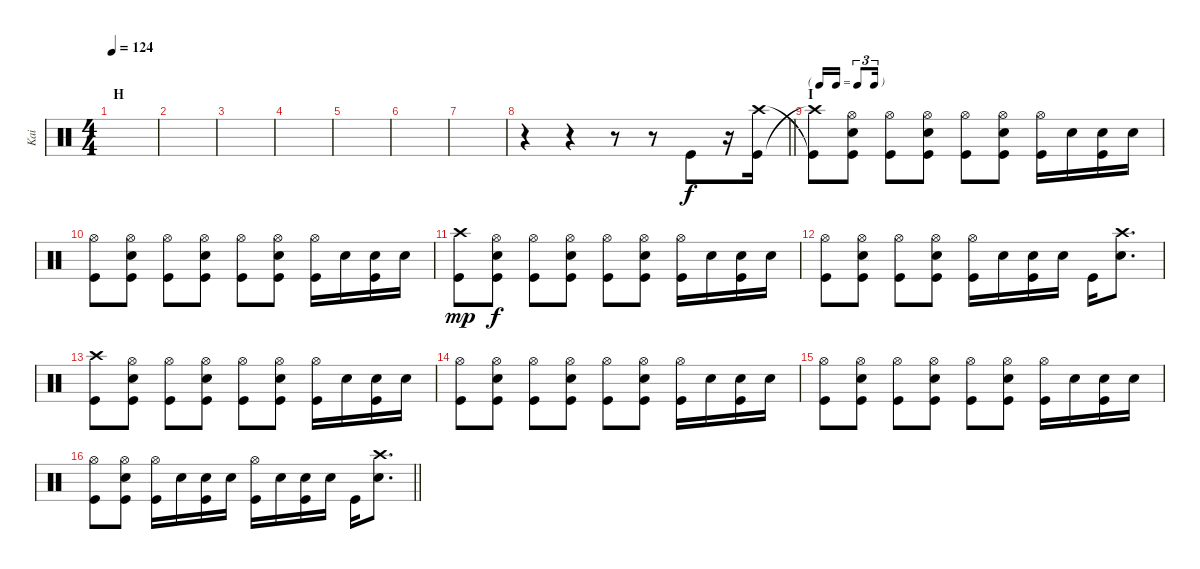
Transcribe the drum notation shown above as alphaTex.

\track ("Kai" "Kai") {instrument percussion}
\staff {score}
\articulation defaults
\ts (4 4)
\section ("" "H")
\tempo 124
\clef neutral
\ks c
|
|
|
|
|
|
|
\barLineRight lightlight
r.4 r.4 r.8 r.8 "Kick (hit)".8 r.16 ("Crash high (hit)" "Kick (hit)").16 |
\tf triplet16th
\section ("" "I")
("Kick (hit)"{t} "Crash high (hit)"{t}).8 ("Hi-Hat (open)" "Snare (hit) 2" "Kick (hit)").8 ("Hi-Hat (open)" "Kick (hit)").8 ("Hi-Hat (open)" "Snare (hit) 2" "Kick (hit)").8 ("Kick (hit)" "Hi-Hat (open)").8 ("Snare (hit) 2" "Hi-Hat (open)" "Kick (hit)").8 ("Kick (hit)" "Hi-Hat (open)").16 "Snare (hit) 2".16 ("Snare (hit) 2" "Kick (hit)").16 "Snare (hit) 2".16 |
("Hi-Hat (open)" "Kick (hit)").8 ("Hi-Hat (open)" "Snare (hit) 2" "Kick (hit)").8 ("Hi-Hat (open)" "Kick (hit)").8 ("Hi-Hat (open)" "Snare (hit) 2" "Kick (hit)").8 ("Kick (hit)" "Hi-Hat (open)").8 ("Snare (hit) 2" "Hi-Hat (open)" "Kick (hit)").8 ("Kick (hit)" "Hi-Hat (open)").16 "Snare (hit) 2".16 ("Snare (hit) 2" "Kick (hit)").16 "Snare (hit) 2".16 |
("Crash high (hit)" "Kick (hit)").8{dy mp} ("Hi-Hat (open)" "Snare (hit) 2" "Kick (hit)").8{dy f} ("Hi-Hat (open)" "Kick (hit)").8 ("Hi-Hat (open)" "Snare (hit) 2" "Kick (hit)").8 ("Kick (hit)" "Hi-Hat (open)").8 ("Snare (hit) 2" "Hi-Hat (open)" "Kick (hit)").8 ("Kick (hit)" "Hi-Hat (open)").16 "Snare (hit) 2".16 ("Snare (hit) 2" "Kick (hit)").16 "Snare (hit) 2".16 |
("Hi-Hat (open)" "Kick (hit)").8 ("Hi-Hat (open)" "Snare (hit) 2" "Kick (hit)").8 ("Hi-Hat (open)" "Kick (hit)").8 ("Hi-Hat (open)" "Snare (hit) 2" "Kick (hit)").8 ("Kick (hit)" "Hi-Hat (open)").16 "Snare (hit) 2".16 ("Snare (hit) 2" "Kick (hit)").16 "Snare (hit) 2".16 "Kick (hit)".16 ("Snare (hit) 2" "Crash high (hit)").8{d} |
("Kick (hit)" "Crash high (hit)").8 ("Hi-Hat (open)" "Snare (hit) 2" "Kick (hit)").8 ("Hi-Hat (open)" "Kick (hit)").8 ("Hi-Hat (open)" "Snare (hit) 2" "Kick (hit)").8 ("Kick (hit)" "Hi-Hat (open)").8 ("Snare (hit) 2" "Hi-Hat (open)" "Kick (hit)").8 ("Kick (hit)" "Hi-Hat (open)").16 "Snare (hit) 2".16 ("Snare (hit) 2" "Kick (hit)").16 "Snare (hit) 2".16 |
("Hi-Hat (open)" "Kick (hit)").8 ("Hi-Hat (open)" "Snare (hit) 2" "Kick (hit)").8 ("Hi-Hat (open)" "Kick (hit)").8 ("Hi-Hat (open)" "Snare (hit) 2" "Kick (hit)").8 ("Kick (hit)" "Hi-Hat (open)").8 ("Snare (hit) 2" "Hi-Hat (open)" "Kick (hit)").8 ("Kick (hit)" "Hi-Hat (open)").16 "Snare (hit) 2".16 ("Snare (hit) 2" "Kick (hit)").16 "Snare (hit) 2".16 |
("Hi-Hat (open)" "Kick (hit)").8 ("Hi-Hat (open)" "Snare (hit) 2" "Kick (hit)").8 ("Hi-Hat (open)" "Kick (hit)").8 ("Hi-Hat (open)" "Snare (hit) 2" "Kick (hit)").8 ("Kick (hit)" "Hi-Hat (open)").8 ("Snare (hit) 2" "Hi-Hat (open)" "Kick (hit)").8 ("Kick (hit)" "Hi-Hat (open)").16 "Snare (hit) 2".16 ("Snare (hit) 2" "Kick (hit)").16 "Snare (hit) 2".16 |
\barLineRight lightlight
("Hi-Hat (open)" "Kick (hit)").8 ("Hi-Hat (open)" "Snare (hit) 2" "Kick (hit)").8 ("Kick (hit)" "Hi-Hat (open)").16 "Snare (hit) 2".16 ("Snare (hit) 2" "Kick (hit)").16 "Snare (hit) 2".16 ("Kick (hit)" "Hi-Hat (open)").16 "Snare (hit) 2".16 ("Snare (hit) 2" "Kick (hit)").16 "Snare (hit) 2".16 "Kick (hit)".16 ("Snare (hit) 2" "Crash high (hit)").8{d}
